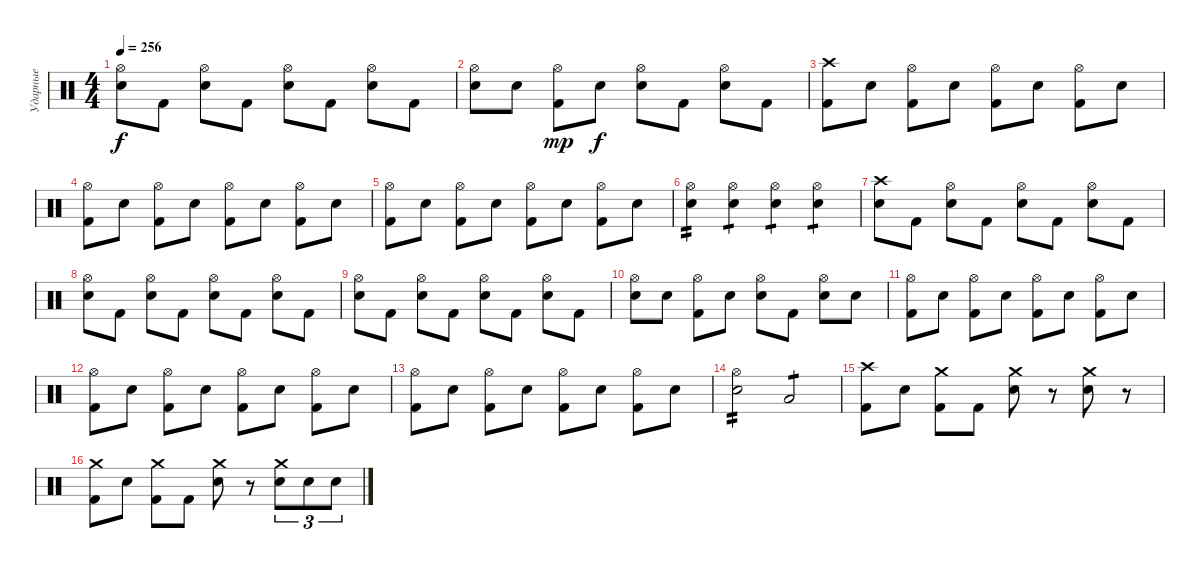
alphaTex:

\track ("Ударные" "Ударные") {instrument percussion}
\staff {score}
\articulation defaults
\ts (4 4)
\tempo 256
\clef neutral
\ks c
("Hi-Hat (open)" "Electric Snare (hit)").8{dy f} "Kick (hit) 2".8 ("Hi-Hat (open)" "Electric Snare (hit)").8 "Kick (hit) 2".8 ("Hi-Hat (open)" "Electric Snare (hit)").8 "Kick (hit) 2".8 ("Hi-Hat (open)" "Electric Snare (hit)").8 "Kick (hit) 2".8 |
("Hi-Hat (open)" "Electric Snare (hit)").8 "Electric Snare (hit)".8 ("Hi-Hat (open)" "Kick (hit) 2").8{dy mp} "Electric Snare (hit)".8{dy f} ("Hi-Hat (open)" "Electric Snare (hit)").8 "Kick (hit) 2".8 ("Hi-Hat (open)" "Electric Snare (hit)").8 "Kick (hit) 2".8 |
("Crash high (hit)" "Kick (hit) 2").8 "Electric Snare (hit)".8 ("Hi-Hat (open)" "Kick (hit) 2").8 "Electric Snare (hit)".8 ("Hi-Hat (open)" "Kick (hit) 2").8 "Electric Snare (hit)".8 ("Hi-Hat (open)" "Kick (hit) 2").8 "Electric Snare (hit)".8 |
("Hi-Hat (open)" "Kick (hit) 2").8 "Electric Snare (hit)".8 ("Hi-Hat (open)" "Kick (hit) 2").8 "Electric Snare (hit)".8 ("Hi-Hat (open)" "Kick (hit) 2").8 "Electric Snare (hit)".8 ("Hi-Hat (open)" "Kick (hit) 2").8 "Electric Snare (hit)".8 |
("Hi-Hat (open)" "Kick (hit) 2").8 "Electric Snare (hit)".8 ("Hi-Hat (open)" "Kick (hit) 2").8 "Electric Snare (hit)".8 ("Hi-Hat (open)" "Kick (hit) 2").8 "Electric Snare (hit)".8 ("Hi-Hat (open)" "Kick (hit) 2").8 "Electric Snare (hit)".8 |
("Hi-Hat (open)" "Electric Snare (hit)").4{tp 2} ("Hi-Hat (open)" "Electric Snare (hit)").4{tp 1} ("Hi-Hat (open)" "Electric Snare (hit)").4{tp 1} ("Hi-Hat (open)" "Electric Snare (hit)").4{tp 1} |
("Crash high (hit)" "Electric Snare (hit)").8 "Kick (hit) 2".8 ("Hi-Hat (open)" "Electric Snare (hit)").8 "Kick (hit) 2".8 ("Hi-Hat (open)" "Electric Snare (hit)").8 "Kick (hit) 2".8 ("Hi-Hat (open)" "Electric Snare (hit)").8 "Kick (hit) 2".8 |
("Hi-Hat (open)" "Electric Snare (hit)").8 "Kick (hit) 2".8 ("Hi-Hat (open)" "Electric Snare (hit)").8 "Kick (hit) 2".8 ("Hi-Hat (open)" "Electric Snare (hit)").8 "Kick (hit) 2".8 ("Hi-Hat (open)" "Electric Snare (hit)").8 "Kick (hit) 2".8 |
("Hi-Hat (open)" "Electric Snare (hit)").8 "Kick (hit) 2".8 ("Hi-Hat (open)" "Electric Snare (hit)").8 "Kick (hit) 2".8 ("Hi-Hat (open)" "Electric Snare (hit)").8 "Kick (hit) 2".8 ("Hi-Hat (open)" "Electric Snare (hit)").8 "Kick (hit) 2".8 |
("Hi-Hat (open)" "Electric Snare (hit)").8 "Electric Snare (hit)".8 ("Hi-Hat (open)" "Kick (hit) 2").8 "Electric Snare (hit)".8 ("Hi-Hat (open)" "Electric Snare (hit)").8 "Kick (hit) 2".8 ("Hi-Hat (open)" "Electric Snare (hit)").8 "Electric Snare (hit)".8 |
("Hi-Hat (open)" "Kick (hit) 2").8 "Electric Snare (hit)".8 ("Hi-Hat (open)" "Kick (hit) 2").8 "Electric Snare (hit)".8 ("Hi-Hat (open)" "Kick (hit) 2").8 "Electric Snare (hit)".8 ("Hi-Hat (open)" "Kick (hit) 2").8 "Electric Snare (hit)".8 |
("Hi-Hat (open)" "Kick (hit) 2").8 "Electric Snare (hit)".8 ("Hi-Hat (open)" "Kick (hit) 2").8 "Electric Snare (hit)".8 ("Hi-Hat (open)" "Kick (hit) 2").8 "Electric Snare (hit)".8 ("Hi-Hat (open)" "Kick (hit) 2").8 "Electric Snare (hit)".8 |
("Hi-Hat (open)" "Kick (hit) 2").8 "Electric Snare (hit)".8 ("Hi-Hat (open)" "Kick (hit) 2").8 "Electric Snare (hit)".8 ("Hi-Hat (open)" "Kick (hit) 2").8 "Electric Snare (hit)".8 ("Hi-Hat (open)" "Kick (hit) 2").8 "Electric Snare (hit)".8 |
("Hi-Hat (open)" "Electric Snare (hit)").2{tp 2} "Low Tom (hit)".2{tp 1} |
("Crash high (hit)" "Kick (hit) 2").8 "Electric Snare (hit)".8 ("Crash medium (hit)" "Kick (hit) 2").8 "Kick (hit) 2".8 ("Crash medium (hit)" "Electric Snare (hit)").8 r.8 ("Crash medium (hit)" "Electric Snare (hit)").8 r.8 |
("Crash medium (hit)" "Kick (hit) 2").8 "Electric Snare (hit)".8 ("Crash medium (hit)" "Kick (hit) 2").8 "Kick (hit) 2".8 ("Crash medium (hit)" "Electric Snare (hit)").8 r.8 ("Crash medium (hit)" "Electric Snare (hit)").8{tu (3 2)} "Electric Snare (hit)".8{tu (3 2)} "Electric Snare (hit)".8{tu (3 2)}
